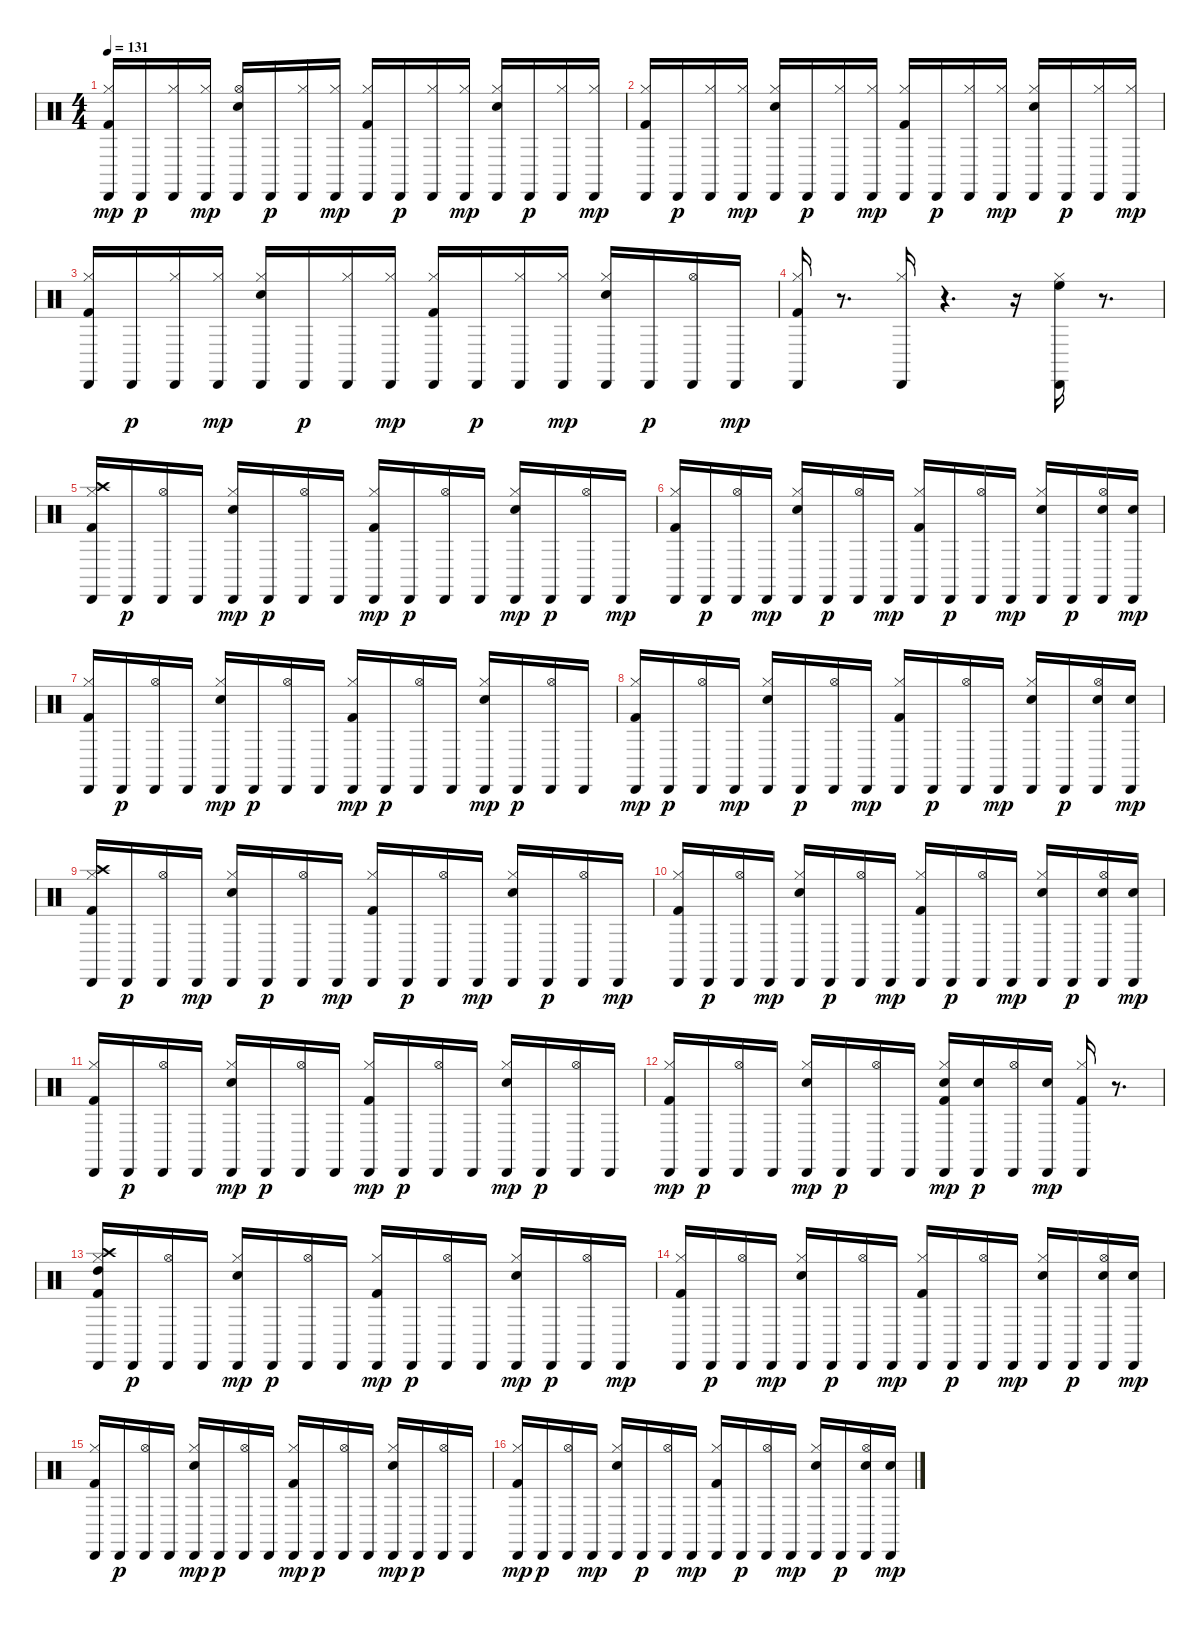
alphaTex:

\track "" {instrument percussion}
\staff {score}
\articulation defaults
\ts (4 4)
\tempo 131
\clef neutral
\ks c
("Kick (hit) 2" "Hi-Hat (closed)" "Cabasa (hit)").16{dy mp} "Cabasa (hit)".16{dy p} ("Hi-Hat (closed)" "Cabasa (hit)").16 ("Hi-Hat (closed)" "Cabasa (hit)").16{dy mp} ("Snare (hit) 2" "Hi-Hat (open)" "Cabasa (hit)").16 "Cabasa (hit)".16{dy p} ("Hi-Hat (closed)" "Cabasa (hit)").16 ("Hi-Hat (closed)" "Cabasa (hit)").16{dy mp} ("Kick (hit) 2" "Hi-Hat (closed)" "Cabasa (hit)").16 "Cabasa (hit)".16{dy p} ("Hi-Hat (closed)" "Cabasa (hit)").16 ("Hi-Hat (closed)" "Cabasa (hit)").16{dy mp} ("Snare (hit) 2" "Hi-Hat (closed)" "Cabasa (hit)").16 "Cabasa (hit)".16{dy p} ("Hi-Hat (closed)" "Cabasa (hit)").16 ("Hi-Hat (closed)" "Cabasa (hit)").16{dy mp} |
("Kick (hit) 2" "Hi-Hat (closed)" "Cabasa (hit)").16 "Cabasa (hit)".16{dy p} ("Hi-Hat (closed)" "Cabasa (hit)").16 ("Hi-Hat (closed)" "Cabasa (hit)").16{dy mp} ("Snare (hit) 2" "Hi-Hat (closed)" "Cabasa (hit)").16 "Cabasa (hit)".16{dy p} ("Hi-Hat (closed)" "Cabasa (hit)").16 ("Hi-Hat (closed)" "Cabasa (hit)").16{dy mp} ("Kick (hit) 2" "Hi-Hat (closed)" "Cabasa (hit)").16 "Cabasa (hit)".16{dy p} ("Hi-Hat (closed)" "Cabasa (hit)").16 ("Hi-Hat (closed)" "Cabasa (hit)").16{dy mp} ("Snare (hit) 2" "Hi-Hat (closed)" "Cabasa (hit)").16 "Cabasa (hit)".16{dy p} ("Hi-Hat (closed)" "Cabasa (hit)").16 ("Hi-Hat (closed)" "Cabasa (hit)").16{dy mp} |
("Kick (hit) 2" "Hi-Hat (closed)" "Cabasa (hit)").16 "Cabasa (hit)".16{dy p} ("Hi-Hat (closed)" "Cabasa (hit)").16 ("Hi-Hat (closed)" "Cabasa (hit)").16{dy mp} ("Snare (hit) 2" "Hi-Hat (closed)" "Cabasa (hit)").16 "Cabasa (hit)".16{dy p} ("Hi-Hat (closed)" "Cabasa (hit)").16 ("Hi-Hat (closed)" "Cabasa (hit)").16{dy mp} ("Kick (hit) 2" "Hi-Hat (closed)" "Cabasa (hit)").16 "Cabasa (hit)".16{dy p} ("Hi-Hat (closed)" "Cabasa (hit)").16 ("Hi-Hat (closed)" "Cabasa (hit)").16{dy mp} ("Snare (hit) 2" "Hi-Hat (closed)" "Cabasa (hit)").16 "Cabasa (hit)".16{dy p} ("Hi-Hat (open)" "Cabasa (hit)").16 "Cabasa (hit)".16{dy mp} |
("Kick (hit) 2" "Hi-Hat (closed)" "Cabasa (hit)").16 r.8{d} ("Hi-Hat (closed)" "Cabasa (hit)").16 r.4{d} r.16 ("Hi-Hat (closed)" "Cabasa (hit)" "High Floor Tom (hit)").16 r.8{d} |
("Kick (hit) 2" "Hi-Hat (closed)" "Crash high (hit)" "Cabasa (hit)").16 "Cabasa (hit)".16{dy p} ("Hi-Hat (open)" "Cabasa (hit)").16 "Cabasa (hit)".16 ("Snare (hit) 2" "Hi-Hat (closed)" "Cabasa (hit)").16{dy mp} "Cabasa (hit)".16{dy p} ("Hi-Hat (open)" "Cabasa (hit)").16 "Cabasa (hit)".16 ("Kick (hit) 2" "Hi-Hat (closed)" "Cabasa (hit)").16{dy mp} "Cabasa (hit)".16{dy p} ("Hi-Hat (open)" "Cabasa (hit)").16 "Cabasa (hit)".16 ("Snare (hit) 2" "Hi-Hat (closed)" "Cabasa (hit)").16{dy mp} "Cabasa (hit)".16{dy p} ("Hi-Hat (open)" "Cabasa (hit)").16 "Cabasa (hit)".16{dy mp} |
("Kick (hit) 2" "Hi-Hat (closed)" "Cabasa (hit)").16 "Cabasa (hit)".16{dy p} ("Hi-Hat (open)" "Cabasa (hit)").16 "Cabasa (hit)".16{dy mp} ("Snare (hit) 2" "Hi-Hat (closed)" "Cabasa (hit)").16 "Cabasa (hit)".16{dy p} ("Hi-Hat (open)" "Cabasa (hit)").16 "Cabasa (hit)".16{dy mp} ("Kick (hit) 2" "Hi-Hat (closed)" "Cabasa (hit)").16 "Cabasa (hit)".16{dy p} ("Hi-Hat (open)" "Cabasa (hit)").16 "Cabasa (hit)".16{dy mp} ("Snare (hit) 2" "Hi-Hat (closed)" "Cabasa (hit)").16 "Cabasa (hit)".16{dy p} ("Snare (hit) 2" "Hi-Hat (open)" "Cabasa (hit)").16 ("Snare (hit) 2" "Cabasa (hit)").16{dy mp} |
("Kick (hit) 2" "Hi-Hat (closed)" "Cabasa (hit)").16 "Cabasa (hit)".16{dy p} ("Hi-Hat (open)" "Cabasa (hit)").16 "Cabasa (hit)".16 ("Snare (hit) 2" "Hi-Hat (closed)" "Cabasa (hit)").16{dy mp} "Cabasa (hit)".16{dy p} ("Hi-Hat (open)" "Cabasa (hit)").16 "Cabasa (hit)".16 ("Kick (hit) 2" "Hi-Hat (closed)" "Cabasa (hit)").16{dy mp} "Cabasa (hit)".16{dy p} ("Hi-Hat (open)" "Cabasa (hit)").16 "Cabasa (hit)".16 ("Snare (hit) 2" "Hi-Hat (closed)" "Cabasa (hit)").16{dy mp} "Cabasa (hit)".16{dy p} ("Hi-Hat (open)" "Cabasa (hit)").16 "Cabasa (hit)".16 |
("Kick (hit) 2" "Hi-Hat (closed)" "Cabasa (hit)").16{dy mp} "Cabasa (hit)".16{dy p} ("Hi-Hat (open)" "Cabasa (hit)").16 "Cabasa (hit)".16{dy mp} ("Snare (hit) 2" "Hi-Hat (closed)" "Cabasa (hit)").16 "Cabasa (hit)".16{dy p} ("Hi-Hat (open)" "Cabasa (hit)").16 "Cabasa (hit)".16{dy mp} ("Kick (hit) 2" "Hi-Hat (closed)" "Cabasa (hit)").16 "Cabasa (hit)".16{dy p} ("Hi-Hat (open)" "Cabasa (hit)").16 "Cabasa (hit)".16{dy mp} ("Snare (hit) 2" "Hi-Hat (closed)" "Cabasa (hit)").16 "Cabasa (hit)".16{dy p} ("Snare (hit) 2" "Hi-Hat (open)" "Cabasa (hit)").16 ("Snare (hit) 2" "Cabasa (hit)").16{dy mp} |
("Kick (hit) 2" "Hi-Hat (closed)" "Crash high (hit)" "Cabasa (hit)").16 "Cabasa (hit)".16{dy p} ("Hi-Hat (open)" "Cabasa (hit)").16 "Cabasa (hit)".16{dy mp} ("Snare (hit) 2" "Hi-Hat (closed)" "Cabasa (hit)").16 "Cabasa (hit)".16{dy p} ("Hi-Hat (open)" "Cabasa (hit)").16 "Cabasa (hit)".16{dy mp} ("Kick (hit) 2" "Hi-Hat (closed)" "Cabasa (hit)").16 "Cabasa (hit)".16{dy p} ("Hi-Hat (open)" "Cabasa (hit)").16 "Cabasa (hit)".16{dy mp} ("Snare (hit) 2" "Hi-Hat (closed)" "Cabasa (hit)").16 "Cabasa (hit)".16{dy p} ("Hi-Hat (open)" "Cabasa (hit)").16 "Cabasa (hit)".16{dy mp} |
("Kick (hit) 2" "Hi-Hat (closed)" "Cabasa (hit)").16 "Cabasa (hit)".16{dy p} ("Hi-Hat (open)" "Cabasa (hit)").16 "Cabasa (hit)".16{dy mp} ("Snare (hit) 2" "Hi-Hat (closed)" "Cabasa (hit)").16 "Cabasa (hit)".16{dy p} ("Hi-Hat (open)" "Cabasa (hit)").16 "Cabasa (hit)".16{dy mp} ("Kick (hit) 2" "Hi-Hat (closed)" "Cabasa (hit)").16 "Cabasa (hit)".16{dy p} ("Hi-Hat (open)" "Cabasa (hit)").16 "Cabasa (hit)".16{dy mp} ("Snare (hit) 2" "Hi-Hat (closed)" "Cabasa (hit)").16 "Cabasa (hit)".16{dy p} ("Snare (hit) 2" "Hi-Hat (open)" "Cabasa (hit)").16 ("Snare (hit) 2" "Cabasa (hit)").16{dy mp} |
("Kick (hit) 2" "Hi-Hat (closed)" "Cabasa (hit)").16 "Cabasa (hit)".16{dy p} ("Hi-Hat (open)" "Cabasa (hit)").16 "Cabasa (hit)".16 ("Snare (hit) 2" "Hi-Hat (closed)" "Cabasa (hit)").16{dy mp} "Cabasa (hit)".16{dy p} ("Hi-Hat (open)" "Cabasa (hit)").16 "Cabasa (hit)".16 ("Kick (hit) 2" "Hi-Hat (closed)" "Cabasa (hit)").16{dy mp} "Cabasa (hit)".16{dy p} ("Hi-Hat (open)" "Cabasa (hit)").16 "Cabasa (hit)".16 ("Snare (hit) 2" "Hi-Hat (closed)" "Cabasa (hit)").16{dy mp} "Cabasa (hit)".16{dy p} ("Hi-Hat (open)" "Cabasa (hit)").16 "Cabasa (hit)".16 |
("Kick (hit) 2" "Hi-Hat (closed)" "Cabasa (hit)").16{dy mp} "Cabasa (hit)".16{dy p} ("Hi-Hat (open)" "Cabasa (hit)").16 "Cabasa (hit)".16 ("Snare (hit) 2" "Hi-Hat (closed)" "Cabasa (hit)").16{dy mp} "Cabasa (hit)".16{dy p} ("Hi-Hat (open)" "Cabasa (hit)").16 "Cabasa (hit)".16 ("Kick (hit) 2" "Snare (hit) 2" "Hi-Hat (closed)" "Cabasa (hit)").16{dy mp} ("Snare (hit) 2" "Cabasa (hit)").16{dy p} ("Hi-Hat (open)" "Cabasa (hit)").16 ("Snare (hit) 2" "Cabasa (hit)").16{dy mp} ("Kick (hit) 2" "Hi-Hat (closed)" "Cabasa (hit)").16 r.8{d} |
("High Tom (hit)" "Kick (hit) 2" "Hi-Hat (closed)" "Crash high (hit)" "Cabasa (hit)").16 "Cabasa (hit)".16{dy p} ("Hi-Hat (open)" "Cabasa (hit)").16 "Cabasa (hit)".16 ("Snare (hit) 2" "Hi-Hat (closed)" "Cabasa (hit)").16{dy mp} "Cabasa (hit)".16{dy p} ("Hi-Hat (open)" "Cabasa (hit)").16 "Cabasa (hit)".16 ("Kick (hit) 2" "Hi-Hat (closed)" "Cabasa (hit)").16{dy mp} "Cabasa (hit)".16{dy p} ("Hi-Hat (open)" "Cabasa (hit)").16 "Cabasa (hit)".16 ("Snare (hit) 2" "Hi-Hat (closed)" "Cabasa (hit)").16{dy mp} "Cabasa (hit)".16{dy p} ("Hi-Hat (open)" "Cabasa (hit)").16 "Cabasa (hit)".16{dy mp} |
("Kick (hit) 2" "Hi-Hat (closed)" "Cabasa (hit)").16 "Cabasa (hit)".16{dy p} ("Hi-Hat (open)" "Cabasa (hit)").16 "Cabasa (hit)".16{dy mp} ("Snare (hit) 2" "Hi-Hat (closed)" "Cabasa (hit)").16 "Cabasa (hit)".16{dy p} ("Hi-Hat (open)" "Cabasa (hit)").16 "Cabasa (hit)".16{dy mp} ("Kick (hit) 2" "Hi-Hat (closed)" "Cabasa (hit)").16 "Cabasa (hit)".16{dy p} ("Hi-Hat (open)" "Cabasa (hit)").16 "Cabasa (hit)".16{dy mp} ("Snare (hit) 2" "Hi-Hat (closed)" "Cabasa (hit)").16 "Cabasa (hit)".16{dy p} ("Snare (hit) 2" "Hi-Hat (open)" "Cabasa (hit)").16 ("Snare (hit) 2" "Cabasa (hit)").16{dy mp} |
("Kick (hit) 2" "Hi-Hat (closed)" "Cabasa (hit)").16 "Cabasa (hit)".16{dy p} ("Hi-Hat (open)" "Cabasa (hit)").16 "Cabasa (hit)".16 ("Snare (hit) 2" "Hi-Hat (closed)" "Cabasa (hit)").16{dy mp} "Cabasa (hit)".16{dy p} ("Hi-Hat (open)" "Cabasa (hit)").16 "Cabasa (hit)".16 ("Kick (hit) 2" "Hi-Hat (closed)" "Cabasa (hit)").16{dy mp} "Cabasa (hit)".16{dy p} ("Hi-Hat (open)" "Cabasa (hit)").16 "Cabasa (hit)".16 ("Snare (hit) 2" "Hi-Hat (closed)" "Cabasa (hit)").16{dy mp} "Cabasa (hit)".16{dy p} ("Hi-Hat (open)" "Cabasa (hit)").16 "Cabasa (hit)".16 |
("Kick (hit) 2" "Hi-Hat (closed)" "Cabasa (hit)").16{dy mp} "Cabasa (hit)".16{dy p} ("Hi-Hat (open)" "Cabasa (hit)").16 "Cabasa (hit)".16{dy mp} ("Snare (hit) 2" "Hi-Hat (closed)" "Cabasa (hit)").16 "Cabasa (hit)".16{dy p} ("Hi-Hat (open)" "Cabasa (hit)").16 "Cabasa (hit)".16{dy mp} ("Kick (hit) 2" "Hi-Hat (closed)" "Cabasa (hit)").16 "Cabasa (hit)".16{dy p} ("Hi-Hat (open)" "Cabasa (hit)").16 "Cabasa (hit)".16{dy mp} ("Snare (hit) 2" "Hi-Hat (closed)" "Cabasa (hit)").16 "Cabasa (hit)".16{dy p} ("Snare (hit) 2" "Hi-Hat (open)" "Cabasa (hit)").16 ("Snare (hit) 2" "Cabasa (hit)").16{dy mp}
